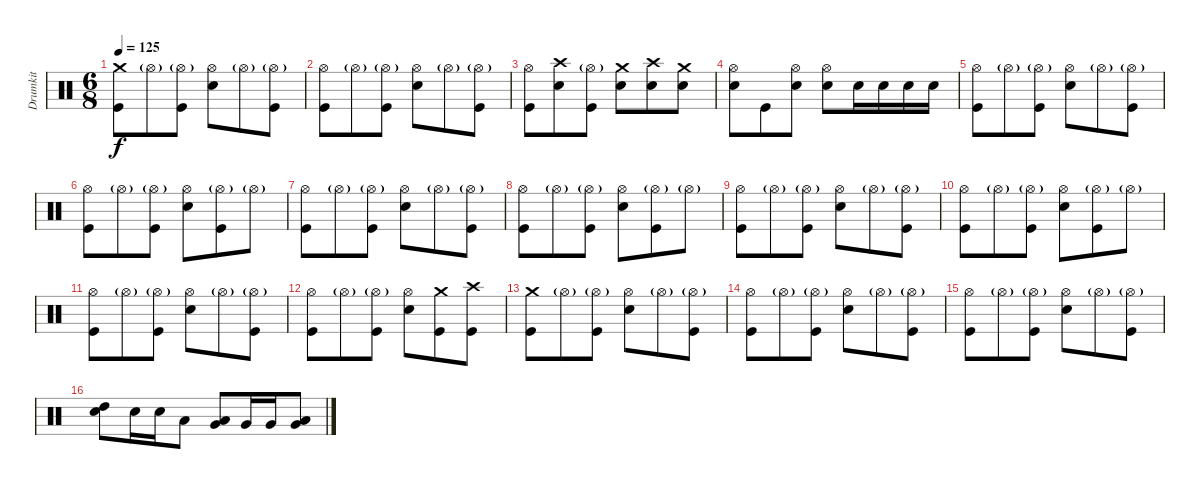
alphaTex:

\track ("Drumkit" "Drumkit") {instrument percussion}
\staff {score}
\articulation defaults
\ts (6 8)
\tempo 125
\clef neutral
\ks c
("Kick (hit)" "Crash medium (hit)").8{dy f} "Hi-Hat (open)"{g}.8 ("Kick (hit)" "Hi-Hat (open)"{g}).8 ("Snare (hit) 2" "Hi-Hat (open)").8 "Hi-Hat (open)"{g}.8 ("Hi-Hat (open)"{g} "Kick (hit)").8 |
("Kick (hit)" "Hi-Hat (open)").8 "Hi-Hat (open)"{g}.8 ("Kick (hit)" "Hi-Hat (open)"{g}).8 ("Snare (hit) 2" "Hi-Hat (open)").8 "Hi-Hat (open)"{g}.8 ("Hi-Hat (open)"{g} "Kick (hit)").8 |
("Kick (hit)" "Hi-Hat (open)").8 ("Snare (hit) 2" "Crash high (hit)").8 ("Kick (hit)" "Hi-Hat (open)"{g}).8 ("Snare (hit) 2" "Crash medium (hit)").8 ("Snare (hit) 2" "Crash high (hit)").8 ("Snare (hit) 2" "Crash medium (hit)").8 |
("Snare (hit) 2" "Hi-Hat (open)").8 "Kick (hit)".8 ("Snare (hit) 2" "Hi-Hat (open)").8 ("Snare (hit) 2" "Hi-Hat (open)").8 "Snare (hit) 2".16 "Snare (hit) 2".16 "Snare (hit) 2".16 "Snare (hit) 2".16 |
("Kick (hit)" "Hi-Hat (open)").8 "Hi-Hat (open)"{g}.8 ("Kick (hit)" "Hi-Hat (open)"{g}).8 ("Snare (hit) 2" "Hi-Hat (open)").8 "Hi-Hat (open)"{g}.8 ("Hi-Hat (open)"{g} "Kick (hit)").8 |
("Kick (hit)" "Hi-Hat (open)").8 "Hi-Hat (open)"{g}.8 ("Kick (hit)" "Hi-Hat (open)"{g}).8 ("Snare (hit) 2" "Hi-Hat (open)").8 ("Hi-Hat (open)"{g} "Kick (hit)").8 "Hi-Hat (open)"{g}.8 |
("Kick (hit)" "Hi-Hat (open)").8 "Hi-Hat (open)"{g}.8 ("Kick (hit)" "Hi-Hat (open)"{g}).8 ("Snare (hit) 2" "Hi-Hat (open)").8 "Hi-Hat (open)"{g}.8 ("Hi-Hat (open)"{g} "Kick (hit)").8 |
("Kick (hit)" "Hi-Hat (open)").8 "Hi-Hat (open)"{g}.8 ("Kick (hit)" "Hi-Hat (open)"{g}).8 ("Snare (hit) 2" "Hi-Hat (open)").8 ("Hi-Hat (open)"{g} "Kick (hit)").8 "Hi-Hat (open)"{g}.8 |
("Kick (hit)" "Hi-Hat (open)").8 "Hi-Hat (open)"{g}.8 ("Kick (hit)" "Hi-Hat (open)"{g}).8 ("Snare (hit) 2" "Hi-Hat (open)").8 "Hi-Hat (open)"{g}.8 ("Hi-Hat (open)"{g} "Kick (hit)").8 |
("Kick (hit)" "Hi-Hat (open)").8 "Hi-Hat (open)"{g}.8 ("Kick (hit)" "Hi-Hat (open)"{g}).8 ("Snare (hit) 2" "Hi-Hat (open)").8 ("Hi-Hat (open)"{g} "Kick (hit)").8 "Hi-Hat (open)"{g}.8 |
("Kick (hit)" "Hi-Hat (open)").8 "Hi-Hat (open)"{g}.8 ("Kick (hit)" "Hi-Hat (open)"{g}).8 ("Snare (hit) 2" "Hi-Hat (open)").8 "Hi-Hat (open)"{g}.8 ("Hi-Hat (open)"{g} "Kick (hit)").8 |
("Kick (hit)" "Hi-Hat (open)").8 "Hi-Hat (open)"{g}.8 ("Kick (hit)" "Hi-Hat (open)"{g}).8 ("Snare (hit) 2" "Hi-Hat (open)").8 ("Kick (hit)" "Crash medium (hit)").8 ("Kick (hit)" "Crash high (hit)").8 |
("Kick (hit)" "Crash medium (hit)").8 "Hi-Hat (open)"{g}.8 ("Kick (hit)" "Hi-Hat (open)"{g}).8 ("Snare (hit) 2" "Hi-Hat (open)").8 "Hi-Hat (open)"{g}.8 ("Hi-Hat (open)"{g} "Kick (hit)").8 |
("Kick (hit)" "Hi-Hat (open)").8 "Hi-Hat (open)"{g}.8 ("Kick (hit)" "Hi-Hat (open)"{g}).8 ("Snare (hit) 2" "Hi-Hat (open)").8 "Hi-Hat (open)"{g}.8 ("Hi-Hat (open)"{g} "Kick (hit)").8 |
("Kick (hit)" "Hi-Hat (open)").8 "Hi-Hat (open)"{g}.8 ("Kick (hit)" "Hi-Hat (open)"{g}).8 ("Snare (hit) 2" "Hi-Hat (open)").8 "Hi-Hat (open)"{g}.8 ("Hi-Hat (open)"{g} "Kick (hit)").8 |
("Snare (hit) 2" "High Tom (hit)").8 "Snare (hit) 2".16 "Snare (hit) 2".16 "Low Tom (hit)".8 ("Very Low Tom (hit)" "Low Tom (hit)").8 "Very Low Tom (hit)".16 "Very Low Tom (hit)".16 ("Low Floor Tom (hit)" "Very Low Tom (hit)").8
